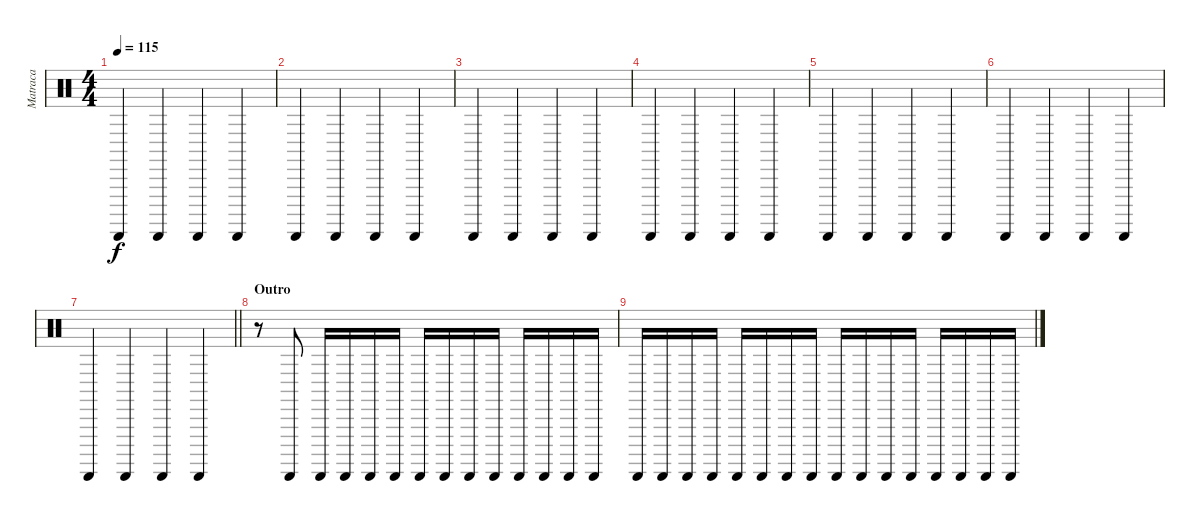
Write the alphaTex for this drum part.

\track ("Matraca" "Matraca") {instrument percussion}
\staff {score}
\articulation defaults
\ts (4 4)
\tempo 115
\clef neutral
\ks c "Guiro (scrap-return)".4{dy f} "Guiro (scrap-return)".4 "Guiro (scrap-return)".4 "Guiro (scrap-return)".4
|
"Guiro (scrap-return)".4 "Guiro (scrap-return)".4 "Guiro (scrap-return)".4 "Guiro (scrap-return)".4 |
"Guiro (scrap-return)".4 "Guiro (scrap-return)".4 "Guiro (scrap-return)".4 "Guiro (scrap-return)".4 |
"Guiro (scrap-return)".4 "Guiro (scrap-return)".4 "Guiro (scrap-return)".4 "Guiro (scrap-return)".4 |
"Guiro (scrap-return)".4 "Guiro (scrap-return)".4 "Guiro (scrap-return)".4 "Guiro (scrap-return)".4 |
"Guiro (scrap-return)".4 "Guiro (scrap-return)".4 "Guiro (scrap-return)".4 "Guiro (scrap-return)".4 |
\barLineRight lightlight "Guiro (scrap-return)".4 "Guiro (scrap-return)".4 "Guiro (scrap-return)".4 "Guiro (scrap-return)".4
|
\section ("" "Outro")
r.8 "Guiro (scrap-return)".8 "Guiro (scrap-return)".16 "Guiro (scrap-return)".16 "Guiro (scrap-return)".16 "Guiro (scrap-return)".16 "Guiro (scrap-return)".16 "Guiro (scrap-return)".16 "Guiro (scrap-return)".16 "Guiro (scrap-return)".16 "Guiro (scrap-return)".16 "Guiro (scrap-return)".16 "Guiro (scrap-return)".16 "Guiro (scrap-return)".16 |
"Guiro (scrap-return)".16 "Guiro (scrap-return)".16 "Guiro (scrap-return)".16 "Guiro (scrap-return)".16 "Guiro (scrap-return)".16 "Guiro (scrap-return)".16 "Guiro (scrap-return)".16 "Guiro (scrap-return)".16 "Guiro (scrap-return)".16 "Guiro (scrap-return)".16 "Guiro (scrap-return)".16 "Guiro (scrap-return)".16 "Guiro (scrap-return)".16 "Guiro (scrap-return)".16 "Guiro (scrap-return)".16 "Guiro (scrap-return)".16
